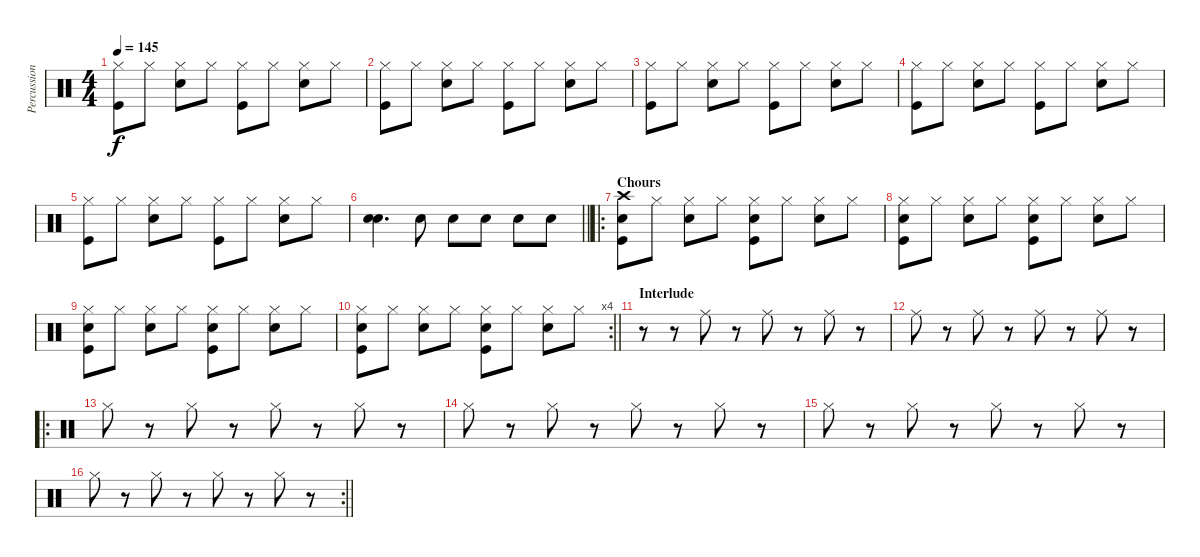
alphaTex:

\track ("Percussion" "Percussion") {instrument percussion}
\staff {score}
\articulation defaults
\ts (4 4)
\tempo 145
\clef neutral
\ks c
("Hi-Hat (closed)" "Kick (hit)").8{dy f} "Hi-Hat (closed)".8 ("Hi-Hat (closed)" "Snare (hit) 2").8 "Hi-Hat (closed)".8 ("Hi-Hat (closed)" "Kick (hit)").8 "Hi-Hat (closed)".8 ("Hi-Hat (closed)" "Electric Snare (hit)").8 "Hi-Hat (closed)".8 |
("Hi-Hat (closed)" "Kick (hit)").8 "Hi-Hat (closed)".8 ("Hi-Hat (closed)" "Snare (hit) 2").8 "Hi-Hat (closed)".8 ("Hi-Hat (closed)" "Kick (hit)").8 "Hi-Hat (closed)".8 ("Hi-Hat (closed)" "Electric Snare (hit)").8 "Hi-Hat (closed)".8 |
("Hi-Hat (closed)" "Kick (hit)").8 "Hi-Hat (closed)".8 ("Hi-Hat (closed)" "Snare (hit) 2").8 "Hi-Hat (closed)".8 ("Hi-Hat (closed)" "Kick (hit)").8 "Hi-Hat (closed)".8 ("Hi-Hat (closed)" "Electric Snare (hit)").8 "Hi-Hat (closed)".8 |
("Hi-Hat (closed)" "Kick (hit)").8 "Hi-Hat (closed)".8 ("Hi-Hat (closed)" "Snare (hit) 2").8 "Hi-Hat (closed)".8 ("Hi-Hat (closed)" "Kick (hit)").8 "Hi-Hat (closed)".8 ("Hi-Hat (closed)" "Electric Snare (hit)").8 "Hi-Hat (closed)".8 |
("Hi-Hat (closed)" "Kick (hit)").8 "Hi-Hat (closed)".8 ("Hi-Hat (closed)" "Snare (hit) 2").8 "Hi-Hat (closed)".8 ("Hi-Hat (closed)" "Kick (hit)").8 "Hi-Hat (closed)".8 ("Hi-Hat (closed)" "Electric Snare (hit)").8 "Hi-Hat (closed)".8 |
\barLineRight lightlight
("Electric Snare (hit)" "Electric Snare (hit)").4{d} "Electric Snare (hit)".8 "Electric Snare (hit)".8 "Electric Snare (hit)".8 "Electric Snare (hit)".8 "Electric Snare (hit)".8 |
\ro
\section ("" "Chours")
("Electric Snare (hit)" "Kick (hit)" "Crash high (hit)").8 "Hi-Hat (closed)".8 ("Hi-Hat (closed)" "Electric Snare (hit)").8 "Hi-Hat (closed)".8 ("Hi-Hat (closed)" "Kick (hit)" "Electric Snare (hit)").8 "Hi-Hat (closed)".8 ("Hi-Hat (closed)" "Electric Snare (hit)").8 "Hi-Hat (closed)".8 |
("Electric Snare (hit)" "Kick (hit)" "Hi-Hat (closed)").8 "Hi-Hat (closed)".8 ("Hi-Hat (closed)" "Electric Snare (hit)").8 "Hi-Hat (closed)".8 ("Hi-Hat (closed)" "Kick (hit)" "Electric Snare (hit)").8 "Hi-Hat (closed)".8 ("Hi-Hat (closed)" "Electric Snare (hit)").8 "Hi-Hat (closed)".8 |
("Electric Snare (hit)" "Kick (hit)" "Hi-Hat (closed)").8 "Hi-Hat (closed)".8 ("Hi-Hat (closed)" "Electric Snare (hit)").8 "Hi-Hat (closed)".8 ("Hi-Hat (closed)" "Kick (hit)" "Electric Snare (hit)").8 "Hi-Hat (closed)".8 ("Hi-Hat (closed)" "Electric Snare (hit)").8 "Hi-Hat (closed)".8 |
\rc 4
\barLineRight lightlight
("Electric Snare (hit)" "Kick (hit)" "Hi-Hat (closed)").8 "Hi-Hat (closed)".8 ("Hi-Hat (closed)" "Electric Snare (hit)").8 "Hi-Hat (closed)".8 ("Hi-Hat (closed)" "Kick (hit)" "Electric Snare (hit)").8 "Hi-Hat (closed)".8 ("Hi-Hat (closed)" "Electric Snare (hit)").8 "Hi-Hat (closed)".8 |
\section ("" "Interlude")
r.8 r.8 "Ride (middle)".8 r.8 "Ride (middle)".8 r.8 "Ride (middle)".8 r.8 |
"Ride (middle)".8 r.8 "Ride (middle)".8 r.8 "Ride (middle)".8 r.8 "Ride (middle)".8 r.8 |
\ro "Hi-Hat (closed)".8
r.8 "Hi-Hat (closed)".8 r.8 "Hi-Hat (closed)".8 r.8 "Hi-Hat (closed)".8 r.8 |
"Hi-Hat (closed)".8 r.8 "Hi-Hat (closed)".8 r.8 "Hi-Hat (closed)".8 r.8 "Hi-Hat (closed)".8 r.8 |
"Hi-Hat (closed)".8 r.8 "Hi-Hat (closed)".8 r.8 "Hi-Hat (closed)".8 r.8 "Hi-Hat (closed)".8 r.8 |
\rc 2
\barLineRight lightlight "Hi-Hat (closed)".8
r.8 "Hi-Hat (closed)".8 r.8 "Hi-Hat (closed)".8 r.8 "Hi-Hat (closed)".8 r.8
